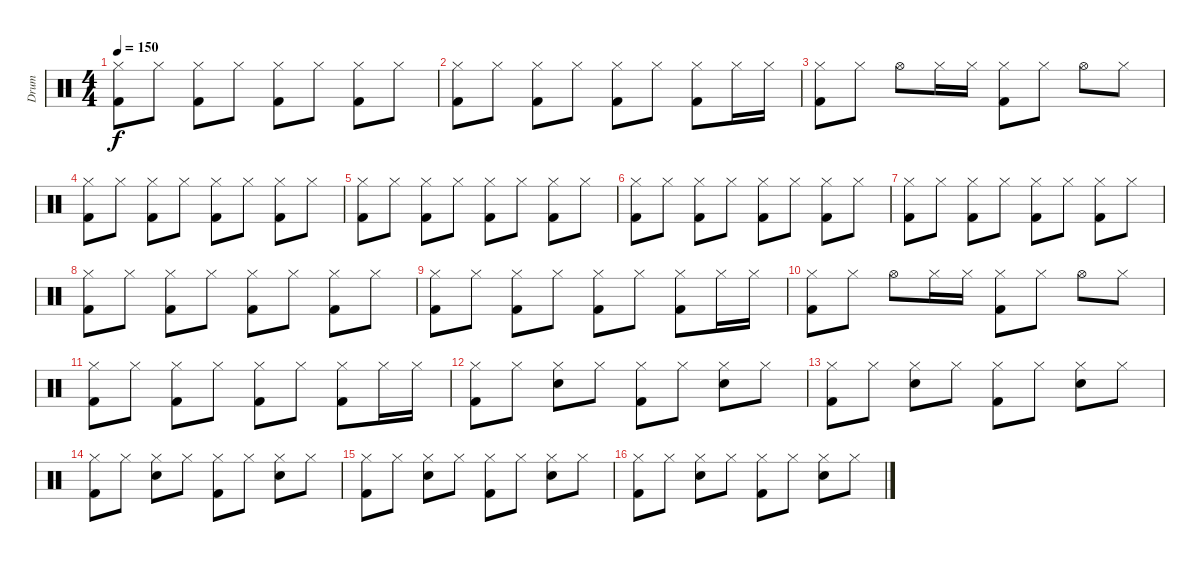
\track ("Drum" "Drum") {instrument percussion}
\staff {score}
\articulation defaults
\ts (4 4)
\tempo 150
\clef neutral
\ks c
("Hi-Hat (closed)" "Kick (hit) 2").8{dy f} "Hi-Hat (closed)".8 ("Hi-Hat (closed)" "Kick (hit) 2").8 "Hi-Hat (closed)".8 ("Hi-Hat (closed)" "Kick (hit) 2").8 "Hi-Hat (closed)".8 ("Hi-Hat (closed)" "Kick (hit) 2").8 "Hi-Hat (closed)".8 |
("Hi-Hat (closed)" "Kick (hit) 2").8 "Hi-Hat (closed)".8 ("Hi-Hat (closed)" "Kick (hit) 2").8 "Hi-Hat (closed)".8 ("Hi-Hat (closed)" "Kick (hit) 2").8 "Hi-Hat (closed)".8 ("Hi-Hat (closed)" "Kick (hit) 2").8 "Hi-Hat (closed)".16 "Hi-Hat (closed)".16 |
("Hi-Hat (closed)" "Kick (hit) 2").8 "Hi-Hat (closed)".8 "Hi-Hat (open)".8 "Hi-Hat (closed)".16 "Hi-Hat (closed)".16 ("Hi-Hat (closed)" "Kick (hit) 2").8 "Hi-Hat (closed)".8 "Hi-Hat (open)".8 "Hi-Hat (closed)".8 |
("Hi-Hat (closed)" "Kick (hit) 2").8 "Hi-Hat (closed)".8 ("Hi-Hat (closed)" "Kick (hit) 2").8 "Hi-Hat (closed)".8 ("Hi-Hat (closed)" "Kick (hit) 2").8 "Hi-Hat (closed)".8 ("Hi-Hat (closed)" "Kick (hit) 2").8 "Hi-Hat (closed)".8 |
("Hi-Hat (closed)" "Kick (hit) 2").8 "Hi-Hat (closed)".8 ("Hi-Hat (closed)" "Kick (hit) 2").8 "Hi-Hat (closed)".8 ("Hi-Hat (closed)" "Kick (hit) 2").8 "Hi-Hat (closed)".8 ("Hi-Hat (closed)" "Kick (hit) 2").8 "Hi-Hat (closed)".8 |
("Hi-Hat (closed)" "Kick (hit) 2").8 "Hi-Hat (closed)".8 ("Hi-Hat (closed)" "Kick (hit) 2").8 "Hi-Hat (closed)".8 ("Hi-Hat (closed)" "Kick (hit) 2").8 "Hi-Hat (closed)".8 ("Hi-Hat (closed)" "Kick (hit) 2").8 "Hi-Hat (closed)".8 |
("Hi-Hat (closed)" "Kick (hit) 2").8 "Hi-Hat (closed)".8 ("Hi-Hat (closed)" "Kick (hit) 2").8 "Hi-Hat (closed)".8 ("Hi-Hat (closed)" "Kick (hit) 2").8 "Hi-Hat (closed)".8 ("Hi-Hat (closed)" "Kick (hit) 2").8 "Hi-Hat (closed)".8 |
("Hi-Hat (closed)" "Kick (hit) 2").8 "Hi-Hat (closed)".8 ("Hi-Hat (closed)" "Kick (hit) 2").8 "Hi-Hat (closed)".8 ("Hi-Hat (closed)" "Kick (hit) 2").8 "Hi-Hat (closed)".8 ("Hi-Hat (closed)" "Kick (hit) 2").8 "Hi-Hat (closed)".8 |
("Hi-Hat (closed)" "Kick (hit) 2").8 "Hi-Hat (closed)".8 ("Hi-Hat (closed)" "Kick (hit) 2").8 "Hi-Hat (closed)".8 ("Hi-Hat (closed)" "Kick (hit) 2").8 "Hi-Hat (closed)".8 ("Hi-Hat (closed)" "Kick (hit) 2").8 "Hi-Hat (closed)".16 "Hi-Hat (closed)".16 |
("Hi-Hat (closed)" "Kick (hit) 2").8 "Hi-Hat (closed)".8 "Hi-Hat (open)".8 "Hi-Hat (closed)".16 "Hi-Hat (closed)".16 ("Hi-Hat (closed)" "Kick (hit) 2").8 "Hi-Hat (closed)".8 "Hi-Hat (open)".8 "Hi-Hat (closed)".8 |
("Hi-Hat (closed)" "Kick (hit) 2").8 "Hi-Hat (closed)".8 ("Hi-Hat (closed)" "Kick (hit) 2").8 "Hi-Hat (closed)".8 ("Hi-Hat (closed)" "Kick (hit) 2").8 "Hi-Hat (closed)".8 ("Hi-Hat (closed)" "Kick (hit) 2").8 "Hi-Hat (closed)".16 "Hi-Hat (closed)".16 |
("Kick (hit) 2" "Hi-Hat (closed)").8 "Hi-Hat (closed)".8 ("Hi-Hat (closed)" "Snare (hit) 2").8 "Hi-Hat (closed)".8 ("Hi-Hat (closed)" "Kick (hit) 2").8 "Hi-Hat (closed)".8 ("Hi-Hat (closed)" "Snare (hit) 2").8 "Hi-Hat (closed)".8 |
("Kick (hit) 2" "Hi-Hat (closed)").8 "Hi-Hat (closed)".8 ("Hi-Hat (closed)" "Snare (hit) 2").8 "Hi-Hat (closed)".8 ("Hi-Hat (closed)" "Kick (hit) 2").8 "Hi-Hat (closed)".8 ("Hi-Hat (closed)" "Snare (hit) 2").8 "Hi-Hat (closed)".8 |
("Kick (hit) 2" "Hi-Hat (closed)").8 "Hi-Hat (closed)".8 ("Hi-Hat (closed)" "Snare (hit) 2").8 "Hi-Hat (closed)".8 ("Hi-Hat (closed)" "Kick (hit) 2").8 "Hi-Hat (closed)".8 ("Hi-Hat (closed)" "Snare (hit) 2").8 "Hi-Hat (closed)".8 |
("Kick (hit) 2" "Hi-Hat (closed)").8 "Hi-Hat (closed)".8 ("Hi-Hat (closed)" "Snare (hit) 2").8 "Hi-Hat (closed)".8 ("Hi-Hat (closed)" "Kick (hit) 2").8 "Hi-Hat (closed)".8 ("Hi-Hat (closed)" "Snare (hit) 2").8 "Hi-Hat (closed)".8 |
("Kick (hit) 2" "Hi-Hat (closed)").8 "Hi-Hat (closed)".8 ("Hi-Hat (closed)" "Snare (hit) 2").8 "Hi-Hat (closed)".8 ("Hi-Hat (closed)" "Kick (hit) 2").8 "Hi-Hat (closed)".8 ("Hi-Hat (closed)" "Snare (hit) 2").8 "Hi-Hat (closed)".8
